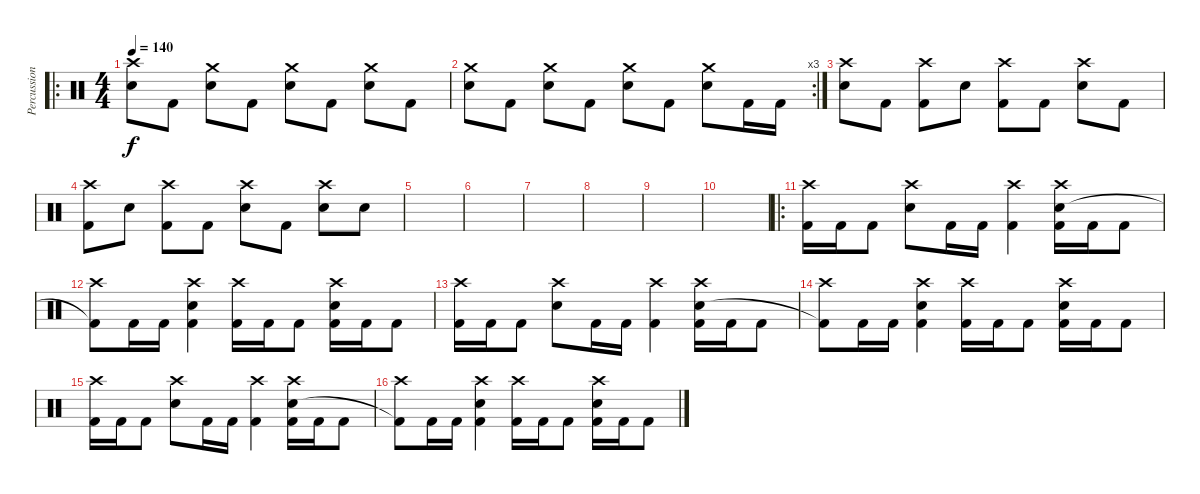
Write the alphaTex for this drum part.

\track ("Percussion" "Percussion") {instrument percussion}
\staff {score}
\articulation defaults
\ro
\ts (4 4)
\tempo 140
\clef neutral
\ks c
("Crash high (hit)" "Electric Snare (hit)").8{dy f} "Kick (hit) 2".8 ("Crash medium (hit)" "Electric Snare (hit)").8 "Kick (hit) 2".8 ("Crash medium (hit)" "Electric Snare (hit)").8 "Kick (hit) 2".8 ("Crash medium (hit)" "Electric Snare (hit)").8 "Kick (hit) 2".8 |
\rc 3
("Crash medium (hit)" "Electric Snare (hit)").8 "Kick (hit) 2".8 ("Crash medium (hit)" "Electric Snare (hit)").8 "Kick (hit) 2".8 ("Crash medium (hit)" "Electric Snare (hit)").8 "Kick (hit) 2".8 ("Crash medium (hit)" "Electric Snare (hit)").8 "Kick (hit) 2".16 "Kick (hit) 2".16 |
("Crash high (hit)" "Electric Snare (hit)").8 "Kick (hit) 2".8 ("Crash high (hit)" "Kick (hit) 2").8 "Electric Snare (hit)".8 ("Crash high (hit)" "Kick (hit) 2").8 "Kick (hit) 2".8 ("Crash high (hit)" "Electric Snare (hit)").8 "Kick (hit) 2".8 |
("Crash high (hit)" "Kick (hit) 2").8 "Electric Snare (hit)".8 ("Crash high (hit)" "Kick (hit) 2").8 "Kick (hit) 2".8 ("Crash high (hit)" "Electric Snare (hit)").8 "Kick (hit) 2".8 ("Crash high (hit)" "Electric Snare (hit)").8 "Electric Snare (hit)".8 |
|
|
|
|
|
|
\ro
("Crash high (hit)" "Kick (hit) 2").16 "Kick (hit) 2".16 "Kick (hit) 2".8 ("Crash high (hit)" "Electric Snare (hit)").8 "Kick (hit) 2".16 "Kick (hit) 2".16 ("Crash high (hit)" "Kick (hit) 2").4 ("Crash high (hit)" "Electric Snare (hit)" "Kick (hit) 2").16 "Kick (hit) 2".16 "Kick (hit) 2".8 |
("Crash high (hit)" "Kick (hit) 2"{t}).8 "Kick (hit) 2".16 "Kick (hit) 2".16 ("Crash high (hit)" "Electric Snare (hit)" "Kick (hit) 2").4 ("Crash high (hit)" "Kick (hit) 2").16 "Kick (hit) 2".16 "Kick (hit) 2".8 ("Crash high (hit)" "Electric Snare (hit)" "Kick (hit) 2").16 "Kick (hit) 2".16 "Kick (hit) 2".8 |
("Crash high (hit)" "Kick (hit) 2").16 "Kick (hit) 2".16 "Kick (hit) 2".8 ("Crash high (hit)" "Electric Snare (hit)").8 "Kick (hit) 2".16 "Kick (hit) 2".16 ("Crash high (hit)" "Kick (hit) 2").4 ("Crash high (hit)" "Electric Snare (hit)" "Kick (hit) 2").16 "Kick (hit) 2".16 "Kick (hit) 2".8 |
("Crash high (hit)" "Kick (hit) 2"{t}).8 "Kick (hit) 2".16 "Kick (hit) 2".16 ("Crash high (hit)" "Electric Snare (hit)" "Kick (hit) 2").4 ("Crash high (hit)" "Kick (hit) 2").16 "Kick (hit) 2".16 "Kick (hit) 2".8 ("Crash high (hit)" "Electric Snare (hit)" "Kick (hit) 2").16 "Kick (hit) 2".16 "Kick (hit) 2".8 |
("Crash high (hit)" "Kick (hit) 2").16 "Kick (hit) 2".16 "Kick (hit) 2".8 ("Crash high (hit)" "Electric Snare (hit)").8 "Kick (hit) 2".16 "Kick (hit) 2".16 ("Crash high (hit)" "Kick (hit) 2").4 ("Crash high (hit)" "Electric Snare (hit)" "Kick (hit) 2").16 "Kick (hit) 2".16 "Kick (hit) 2".8 |
("Crash high (hit)" "Kick (hit) 2"{t}).8 "Kick (hit) 2".16 "Kick (hit) 2".16 ("Crash high (hit)" "Electric Snare (hit)" "Kick (hit) 2").4 ("Crash high (hit)" "Kick (hit) 2").16 "Kick (hit) 2".16 "Kick (hit) 2".8 ("Crash high (hit)" "Electric Snare (hit)" "Kick (hit) 2").16 "Kick (hit) 2".16 "Kick (hit) 2".8
